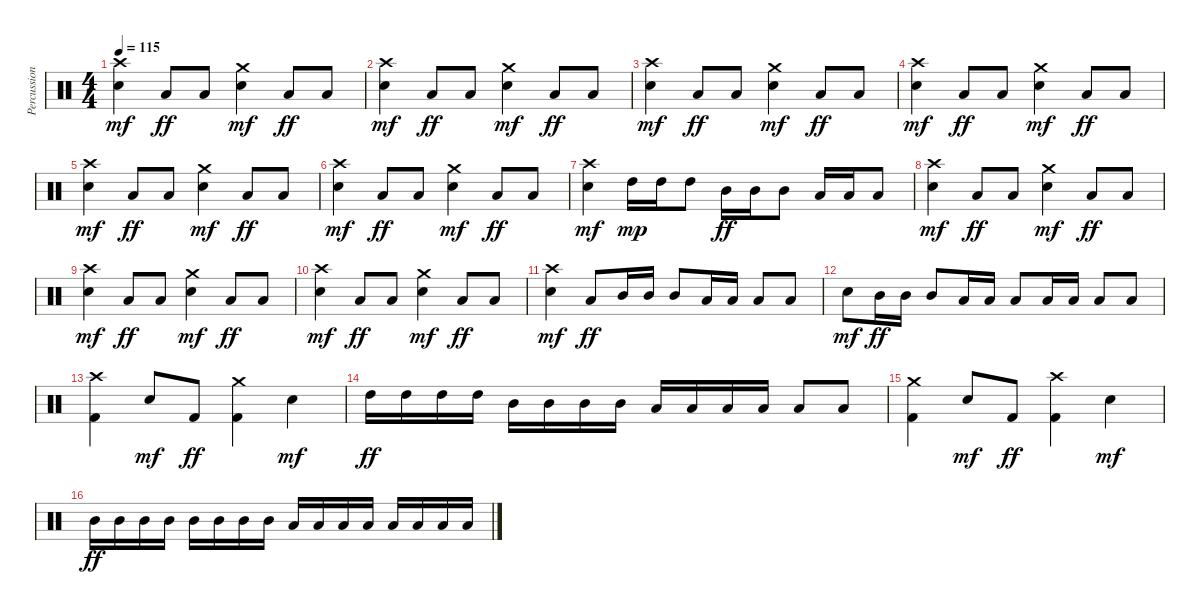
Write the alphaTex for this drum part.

\track ("Percussion" "Percussion") {instrument percussion}
\staff {score}
\articulation defaults
\ts (4 4)
\tempo 115
\clef neutral
\ks c
("Crash high (hit)" "Snare (hit) 2").4{dy mf} "Low Floor Tom (hit)".8{dy ff} "Low Floor Tom (hit)".8 ("Crash medium (hit)" "Snare (hit) 2").4{dy mf} "Low Floor Tom (hit)".8{dy ff} "Low Floor Tom (hit)".8 |
("Crash high (hit)" "Snare (hit) 2").4{dy mf} "Low Floor Tom (hit)".8{dy ff} "Low Floor Tom (hit)".8 ("Crash medium (hit)" "Snare (hit) 2").4{dy mf} "Low Floor Tom (hit)".8{dy ff} "Low Floor Tom (hit)".8 |
("Crash high (hit)" "Snare (hit) 2").4{dy mf} "Low Floor Tom (hit)".8{dy ff} "Low Floor Tom (hit)".8 ("Crash medium (hit)" "Snare (hit) 2").4{dy mf} "Low Floor Tom (hit)".8{dy ff} "Low Floor Tom (hit)".8 |
("Crash high (hit)" "Snare (hit) 2").4{dy mf} "Low Floor Tom (hit)".8{dy ff} "Low Floor Tom (hit)".8 ("Crash medium (hit)" "Snare (hit) 2").4{dy mf} "Low Floor Tom (hit)".8{dy ff} "Low Floor Tom (hit)".8 |
("Crash high (hit)" "Snare (hit) 2").4{dy mf} "Low Floor Tom (hit)".8{dy ff} "Low Floor Tom (hit)".8 ("Crash medium (hit)" "Snare (hit) 2").4{dy mf} "Low Floor Tom (hit)".8{dy ff} "Low Floor Tom (hit)".8 |
("Crash high (hit)" "Snare (hit) 2").4{dy mf} "Low Floor Tom (hit)".8{dy ff} "Low Floor Tom (hit)".8 ("Crash medium (hit)" "Snare (hit) 2").4{dy mf} "Low Floor Tom (hit)".8{dy ff} "Low Floor Tom (hit)".8 |
("Crash high (hit)" "Snare (hit) 2").4{dy mf} "High Tom (hit)".16{dy mp} "High Tom (hit)".16 "High Tom (hit)".8 "Mid Tom (hit)".16{dy ff} "Mid Tom (hit)".16 "Mid Tom (hit)".8 "Low Tom (hit)".16 "Low Tom (hit)".16 "Low Tom (hit)".8 |
("Crash high (hit)" "Snare (hit) 2").4{dy mf} "Low Floor Tom (hit)".8{dy ff} "Low Floor Tom (hit)".8 ("Crash medium (hit)" "Snare (hit) 2").4{dy mf} "Low Floor Tom (hit)".8{dy ff} "Low Floor Tom (hit)".8 |
("Crash high (hit)" "Snare (hit) 2").4{dy mf} "Low Floor Tom (hit)".8{dy ff} "Low Floor Tom (hit)".8 ("Crash medium (hit)" "Snare (hit) 2").4{dy mf} "Low Floor Tom (hit)".8{dy ff} "Low Floor Tom (hit)".8 |
("Crash high (hit)" "Snare (hit) 2").4{dy mf} "Low Floor Tom (hit)".8{dy ff} "Low Floor Tom (hit)".8 ("Crash medium (hit)" "Snare (hit) 2").4{dy mf} "Low Floor Tom (hit)".8{dy ff} "Low Floor Tom (hit)".8 |
("Crash high (hit)" "Snare (hit) 2").4{dy mf} "Low Floor Tom (hit)".8{dy ff} "Mid Tom (hit)".16 "Mid Tom (hit)".16 "Mid Tom (hit)".8 "Low Tom (hit)".16 "Low Tom (hit)".16 "Low Tom (hit)".8 "Low Floor Tom (hit)".8 |
"Snare (hit) 2".8{dy mf} "Mid Tom (hit)".16{dy ff} "Mid Tom (hit)".16 "Mid Tom (hit)".8 "Low Tom (hit)".16 "Low Tom (hit)".16 "Low Tom (hit)".8 "Low Floor Tom (hit)".16 "Low Floor Tom (hit)".16 "Low Floor Tom (hit)".8 "Low Floor Tom (hit)".8 |
("Crash high (hit)" "Kick (hit) 2").4 "Snare (hit) 2".8{dy mf} "Kick (hit) 2".8{dy ff} ("Crash medium (hit)" "Kick (hit) 2").4 "Snare (hit) 2".4{dy mf} |
"High Tom (hit)".16{dy ff} "High Tom (hit)".16 "High Tom (hit)".16 "High Tom (hit)".16 "Mid Tom (hit)".16 "Mid Tom (hit)".16 "Mid Tom (hit)".16 "Mid Tom (hit)".16 "Low Tom (hit)".16 "Low Tom (hit)".16 "Low Tom (hit)".16 "Low Tom (hit)".16 "Low Floor Tom (hit)".8 "Low Floor Tom (hit)".8 |
("Crash medium (hit)" "Kick (hit) 2").4 "Snare (hit) 2".8{dy mf} "Kick (hit) 2".8{dy ff} ("Crash high (hit)" "Kick (hit) 2").4 "Snare (hit) 2".4{dy mf} |
"Mid Tom (hit)".16{dy ff} "Mid Tom (hit)".16 "Mid Tom (hit)".16 "Mid Tom (hit)".16 "Mid Tom (hit)".16 "Mid Tom (hit)".16 "Mid Tom (hit)".16 "Mid Tom (hit)".16 "Low Tom (hit)".16 "Low Tom (hit)".16 "Low Tom (hit)".16 "Low Tom (hit)".16 "Low Tom (hit)".16 "Low Tom (hit)".16 "Low Tom (hit)".16 "Low Tom (hit)".16
